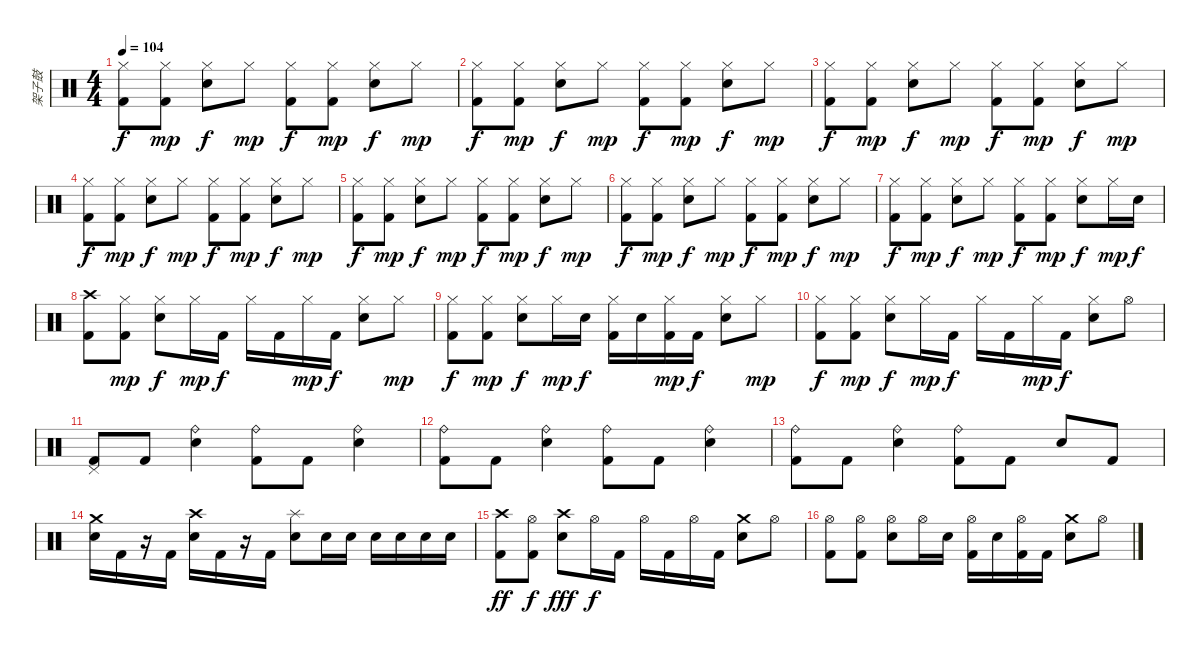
\track ("架子鼓" "架子鼓") {instrument percussion}
\staff {score}
\articulation defaults
\ts (4 4)
\tempo 104
\clef neutral
\ks c
("Hi-Hat (closed)" "Kick (hit) 2").8{dy f} ("Hi-Hat (closed)" "Kick (hit) 2").8{dy mp} ("Hi-Hat (closed)" "Electric Snare (hit)").8{dy f} "Hi-Hat (closed)".8{dy mp} ("Hi-Hat (closed)" "Kick (hit) 2").8{dy f} ("Hi-Hat (closed)" "Kick (hit) 2").8{dy mp} ("Hi-Hat (closed)" "Electric Snare (hit)").8{dy f} "Hi-Hat (closed)".8{dy mp} |
("Hi-Hat (closed)" "Kick (hit) 2").8{dy f} ("Hi-Hat (closed)" "Kick (hit) 2").8{dy mp} ("Hi-Hat (closed)" "Electric Snare (hit)").8{dy f} "Hi-Hat (closed)".8{dy mp} ("Hi-Hat (closed)" "Kick (hit) 2").8{dy f} ("Hi-Hat (closed)" "Kick (hit) 2").8{dy mp} ("Hi-Hat (closed)" "Electric Snare (hit)").8{dy f} "Hi-Hat (closed)".8{dy mp} |
("Hi-Hat (closed)" "Kick (hit) 2").8{dy f} ("Hi-Hat (closed)" "Kick (hit) 2").8{dy mp} ("Hi-Hat (closed)" "Electric Snare (hit)").8{dy f} "Hi-Hat (closed)".8{dy mp} ("Hi-Hat (closed)" "Kick (hit) 2").8{dy f} ("Hi-Hat (closed)" "Kick (hit) 2").8{dy mp} ("Hi-Hat (closed)" "Electric Snare (hit)").8{dy f} "Hi-Hat (closed)".8{dy mp} |
("Hi-Hat (closed)" "Kick (hit) 2").8{dy f} ("Hi-Hat (closed)" "Kick (hit) 2").8{dy mp} ("Hi-Hat (closed)" "Electric Snare (hit)").8{dy f} "Hi-Hat (closed)".8{dy mp} ("Hi-Hat (closed)" "Kick (hit) 2").8{dy f} ("Hi-Hat (closed)" "Kick (hit) 2").8{dy mp} ("Hi-Hat (closed)" "Electric Snare (hit)").8{dy f} "Hi-Hat (closed)".8{dy mp} |
("Hi-Hat (closed)" "Kick (hit) 2").8{dy f} ("Hi-Hat (closed)" "Kick (hit) 2").8{dy mp} ("Hi-Hat (closed)" "Electric Snare (hit)").8{dy f} "Hi-Hat (closed)".8{dy mp} ("Hi-Hat (closed)" "Kick (hit) 2").8{dy f} ("Hi-Hat (closed)" "Kick (hit) 2").8{dy mp} ("Hi-Hat (closed)" "Electric Snare (hit)").8{dy f} "Hi-Hat (closed)".8{dy mp} |
("Hi-Hat (closed)" "Kick (hit) 2").8{dy f} ("Hi-Hat (closed)" "Kick (hit) 2").8{dy mp} ("Hi-Hat (closed)" "Electric Snare (hit)").8{dy f} "Hi-Hat (closed)".8{dy mp} ("Hi-Hat (closed)" "Kick (hit) 2").8{dy f} ("Hi-Hat (closed)" "Kick (hit) 2").8{dy mp} ("Hi-Hat (closed)" "Electric Snare (hit)").8{dy f} "Hi-Hat (closed)".8{dy mp} |
("Hi-Hat (closed)" "Kick (hit) 2").8{dy f} ("Hi-Hat (closed)" "Kick (hit) 2").8{dy mp} ("Hi-Hat (closed)" "Electric Snare (hit)").8{dy f} "Hi-Hat (closed)".8{dy mp} ("Hi-Hat (closed)" "Kick (hit) 2").8{dy f} ("Hi-Hat (closed)" "Kick (hit) 2").8{dy mp} ("Hi-Hat (closed)" "Electric Snare (hit)").8{dy f} "Hi-Hat (closed)".16{dy mp} "Electric Snare (hit)".16{dy f} |
("Crash high (hit)" "Kick (hit) 2").8 ("Hi-Hat (closed)" "Kick (hit) 2").8{dy mp} ("Hi-Hat (closed)" "Electric Snare (hit)").8{dy f} "Hi-Hat (closed)".16{dy mp} "Kick (hit) 2".16{dy f} "Hi-Hat (closed)".16 "Kick (hit) 2".16 "Hi-Hat (closed)".16{dy mp} "Kick (hit) 2".16{dy f} ("Hi-Hat (closed)" "Electric Snare (hit)").8 "Hi-Hat (closed)".8{dy mp} |
("Hi-Hat (closed)" "Kick (hit) 2").8{dy f} ("Hi-Hat (closed)" "Kick (hit) 2").8{dy mp} ("Hi-Hat (closed)" "Electric Snare (hit)").8{dy f} "Hi-Hat (closed)".16{dy mp} "Electric Snare (hit)".16{dy f} ("Hi-Hat (closed)" "Kick (hit) 2").16 "Electric Snare (hit)".16 ("Hi-Hat (closed)" "Kick (hit) 2").16{dy mp} "Kick (hit) 2".16{dy f} ("Hi-Hat (closed)" "Electric Snare (hit)").8 "Hi-Hat (closed)".8{dy mp} |
("Hi-Hat (closed)" "Kick (hit) 2").8{dy f} ("Hi-Hat (closed)" "Kick (hit) 2").8{dy mp} ("Hi-Hat (closed)" "Electric Snare (hit)").8{dy f} "Hi-Hat (closed)".16{dy mp} "Kick (hit) 2".16{dy f} "Hi-Hat (closed)".16 "Kick (hit) 2".16 "Hi-Hat (closed)".16{dy mp} "Kick (hit) 2".16{dy f} ("Hi-Hat (closed)" "Electric Snare (hit)").8 "Hi-Hat (open)".8 |
("Pedal Hi-Hat (hit)" "Kick (hit) 2").8 "Kick (hit) 2".8 ("Ride (bell)" "Electric Snare (hit)").4 ("Ride (bell)" "Kick (hit) 2").8 "Kick (hit) 2".8 ("Ride (bell)" "Electric Snare (hit)").4 |
("Ride (bell)" "Kick (hit) 2").8 "Kick (hit) 2".8 ("Ride (bell)" "Electric Snare (hit)").4 ("Ride (bell)" "Kick (hit) 2").8 "Kick (hit) 2".8 ("Ride (bell)" "Electric Snare (hit)").4 |
("Ride (bell)" "Kick (hit) 2").8 "Kick (hit) 2".8 ("Ride (bell)" "Electric Snare (hit)").4 ("Ride (bell)" "Kick (hit) 2").8 "Kick (hit) 2".8 "Electric Snare (hit)".8 "Kick (hit) 2".8 |
("Crash medium (hit)" "Electric Snare (hit)").16 "Kick (hit) 2".16 r.16 "Kick (hit) 2".16 ("Crash high (hit)" "Electric Snare (hit)").16 "Kick (hit) 2".16 r.16 "Kick (hit) 2".16 ("Splash (hit)" "Electric Snare (hit)").8 "Electric Snare (hit)".16 "Electric Snare (hit)".16 "Electric Snare (hit)".16 "Electric Snare (hit)".16 "Electric Snare (hit)".16 "Electric Snare (hit)".16 |
("Crash high (hit)" "Kick (hit) 2").8{dy ff} ("Hi-Hat (open)" "Kick (hit) 2").8{dy f} ("Crash high (hit)" "Electric Snare (hit)").8{dy fff} "Hi-Hat (open)".16{dy f} "Kick (hit) 2".16 "Hi-Hat (open)".16 "Kick (hit) 2".16 "Hi-Hat (open)".16 "Kick (hit) 2".16 ("Crash medium (hit)" "Electric Snare (hit)").8 "Hi-Hat (open)".8 |
("Hi-Hat (open)" "Kick (hit) 2").8 ("Hi-Hat (open)" "Kick (hit) 2").8 ("Hi-Hat (open)" "Electric Snare (hit)").8 "Hi-Hat (open)".16 "Electric Snare (hit)".16 ("Hi-Hat (open)" "Kick (hit) 2").16 "Electric Snare (hit)".16 ("Hi-Hat (open)" "Kick (hit) 2").16 "Kick (hit) 2".16 ("Crash medium (hit)" "Electric Snare (hit)").8 "Hi-Hat (open)".8
